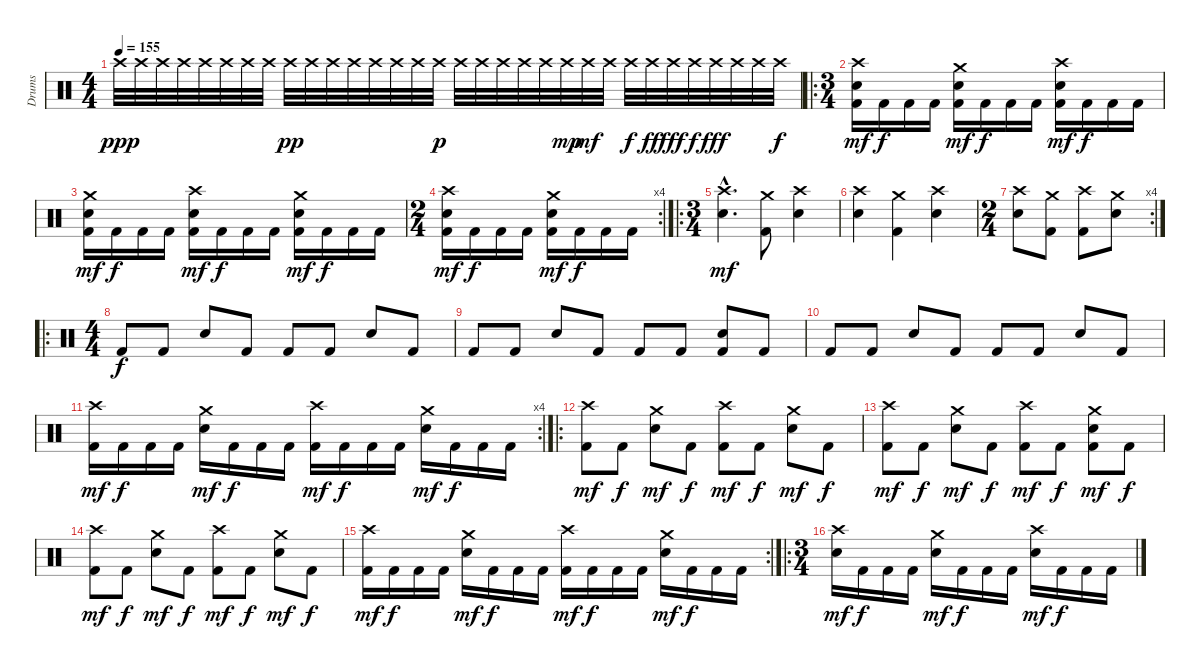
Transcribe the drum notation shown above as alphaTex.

\track ("Drums" "Drums") {instrument percussion}
\staff {score}
\articulation defaults
\ts (4 4)
\tempo 155
\clef neutral
\ks c "Crash high (hit)".32{dy ppp} "Crash high (hit)".32 "Crash high (hit)".32 "Crash high (hit)".32 "Crash high (hit)".32 "Crash high (hit)".32 "Crash high (hit)".32 "Crash high (hit)".32 "Crash high (hit)".32{dy pp} "Crash high (hit)".32 "Crash high (hit)".32 "Crash high (hit)".32 "Crash high (hit)".32 "Crash high (hit)".32 "Crash high (hit)".32 "Crash high (hit)".32{dy p} "Crash high (hit)".32 "Crash high (hit)".32 "Crash high (hit)".32 "Crash high (hit)".32 "Crash high (hit)".32 "Crash high (hit)".32{dy mp} "Crash high (hit)".32{dy mf} "Crash high (hit)".32 "Crash high (hit)".32{dy f} "Crash high (hit)".32{dy ff} "Crash high (hit)".32{dy fff} "Crash high (hit)".32{dy f} "Crash high (hit)".32{dy fff} "Crash high (hit)".32 "Crash high (hit)".32 "Crash high (hit)".32{dy f}
|
\ro
\ts (3 4)
("Crash high (hit)" "Snare (hit) 2" "Kick (hit) 2").16{dy mf} "Kick (hit) 2".16{dy f} "Kick (hit) 2".16 "Kick (hit) 2".16 ("Crash medium (hit)" "Snare (hit) 2" "Kick (hit) 2").16{dy mf} "Kick (hit) 2".16{dy f} "Kick (hit) 2".16 "Kick (hit) 2".16 ("Crash high (hit)" "Snare (hit) 2" "Kick (hit) 2").16{dy mf} "Kick (hit) 2".16{dy f} "Kick (hit) 2".16 "Kick (hit) 2".16 |
("Crash medium (hit)" "Snare (hit) 2" "Kick (hit) 2").16{dy mf} "Kick (hit) 2".16{dy f} "Kick (hit) 2".16 "Kick (hit) 2".16 ("Crash high (hit)" "Snare (hit) 2" "Kick (hit) 2").16{dy mf} "Kick (hit) 2".16{dy f} "Kick (hit) 2".16 "Kick (hit) 2".16 ("Crash medium (hit)" "Snare (hit) 2" "Kick (hit) 2").16{dy mf} "Kick (hit) 2".16{dy f} "Kick (hit) 2".16 "Kick (hit) 2".16 |
\rc 4
\ts (2 4)
("Crash high (hit)" "Snare (hit) 2" "Kick (hit) 2").16{dy mf} "Kick (hit) 2".16{dy f} "Kick (hit) 2".16 "Kick (hit) 2".16 ("Crash medium (hit)" "Snare (hit) 2" "Kick (hit) 2").16{dy mf} "Kick (hit) 2".16{dy f} "Kick (hit) 2".16 "Kick (hit) 2".16 |
\ro
\ts (3 4)
("Crash high (hit)"{hac} "Snare (hit) 2"{hac}).4{d dy mf} ("Crash medium (hit)" "Kick (hit) 2").8 ("Crash high (hit)" "Snare (hit) 2").4 |
("Crash high (hit)" "Snare (hit) 2").4 ("Crash medium (hit)" "Kick (hit) 2").4 ("Crash high (hit)" "Snare (hit) 2").4 |
\rc 4
\ts (2 4)
("Crash high (hit)" "Snare (hit) 2").8 ("Crash medium (hit)" "Kick (hit) 2").8 ("Crash high (hit)" "Kick (hit) 2").8 ("Crash medium (hit)" "Snare (hit) 2").8 |
\ro
\ts (4 4)
"Kick (hit) 2".8{dy f} "Kick (hit) 2".8 "Snare (hit) 2".8 "Kick (hit) 2".8 "Kick (hit) 2".8 "Kick (hit) 2".8 "Snare (hit) 2".8 "Kick (hit) 2".8 |
"Kick (hit) 2".8 "Kick (hit) 2".8 "Snare (hit) 2".8 "Kick (hit) 2".8 "Kick (hit) 2".8 "Kick (hit) 2".8 ("Snare (hit) 2" "Kick (hit) 2").8 "Kick (hit) 2".8 |
"Kick (hit) 2".8 "Kick (hit) 2".8 "Snare (hit) 2".8 "Kick (hit) 2".8 "Kick (hit) 2".8 "Kick (hit) 2".8 "Snare (hit) 2".8 "Kick (hit) 2".8 |
\rc 4
("Crash high (hit)" "Kick (hit) 2").16{dy mf} "Kick (hit) 2".16{dy f} "Kick (hit) 2".16 "Kick (hit) 2".16 ("Crash medium (hit)" "Snare (hit) 2").16{dy mf} "Kick (hit) 2".16{dy f} "Kick (hit) 2".16 "Kick (hit) 2".16 ("Crash high (hit)" "Kick (hit) 2").16{dy mf} "Kick (hit) 2".16{dy f} "Kick (hit) 2".16 "Kick (hit) 2".16 ("Crash medium (hit)" "Snare (hit) 2").16{dy mf} "Kick (hit) 2".16{dy f} "Kick (hit) 2".16 "Kick (hit) 2".16 |
\ro
("Crash high (hit)" "Kick (hit) 2").8{dy mf} "Kick (hit) 2".8{dy f} ("Crash medium (hit)" "Snare (hit) 2").8{dy mf} "Kick (hit) 2".8{dy f} ("Crash high (hit)" "Kick (hit) 2").8{dy mf} "Kick (hit) 2".8{dy f} ("Crash medium (hit)" "Snare (hit) 2").8{dy mf} "Kick (hit) 2".8{dy f} |
("Crash high (hit)" "Kick (hit) 2").8{dy mf} "Kick (hit) 2".8{dy f} ("Crash medium (hit)" "Snare (hit) 2").8{dy mf} "Kick (hit) 2".8{dy f} ("Crash high (hit)" "Kick (hit) 2").8{dy mf} "Kick (hit) 2".8{dy f} ("Crash medium (hit)" "Snare (hit) 2" "Kick (hit) 2").8{dy mf} "Kick (hit) 2".8{dy f} |
("Crash high (hit)" "Kick (hit) 2").8{dy mf} "Kick (hit) 2".8{dy f} ("Crash medium (hit)" "Snare (hit) 2").8{dy mf} "Kick (hit) 2".8{dy f} ("Crash high (hit)" "Kick (hit) 2").8{dy mf} "Kick (hit) 2".8{dy f} ("Crash medium (hit)" "Snare (hit) 2").8{dy mf} "Kick (hit) 2".8{dy f} |
\rc 2
("Crash high (hit)" "Kick (hit) 2").16{dy mf} "Kick (hit) 2".16{dy f} "Kick (hit) 2".16 "Kick (hit) 2".16 ("Crash medium (hit)" "Snare (hit) 2").16{dy mf} "Kick (hit) 2".16{dy f} "Kick (hit) 2".16 "Kick (hit) 2".16 ("Crash high (hit)" "Kick (hit) 2").16{dy mf} "Kick (hit) 2".16{dy f} "Kick (hit) 2".16 "Kick (hit) 2".16 ("Crash medium (hit)" "Snare (hit) 2").16{dy mf} "Kick (hit) 2".16{dy f} "Kick (hit) 2".16 "Kick (hit) 2".16 |
\ro
\ts (3 4)
("Crash high (hit)" "Snare (hit) 2").16{dy mf} "Kick (hit) 2".16{dy f} "Kick (hit) 2".16 "Kick (hit) 2".16 ("Crash medium (hit)" "Snare (hit) 2").16{dy mf} "Kick (hit) 2".16{dy f} "Kick (hit) 2".16 "Kick (hit) 2".16 ("Crash high (hit)" "Snare (hit) 2").16{dy mf} "Kick (hit) 2".16{dy f} "Kick (hit) 2".16 "Kick (hit) 2".16
